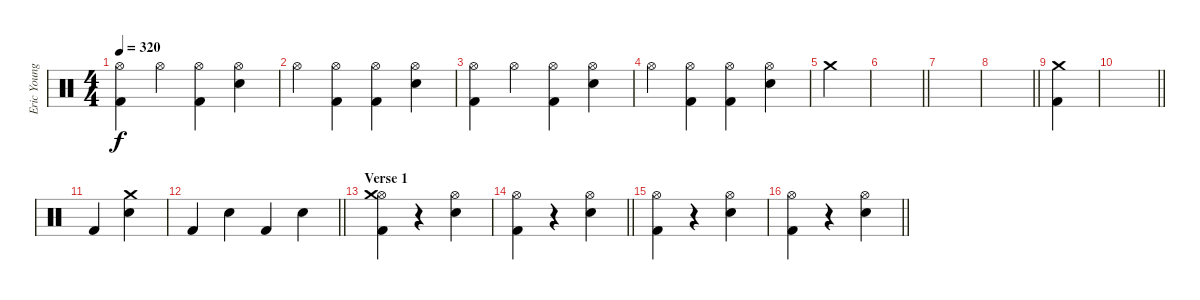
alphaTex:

\track ("Eric Young (Drums)" "Eric Young") {instrument percussion}
\staff {score}
\articulation defaults
\ts (4 4)
\tempo 320
\clef neutral
\ks c
("Hi-Hat (open)" "Kick (hit) 2").4{dy f} "Hi-Hat (open)".4 ("Hi-Hat (open)" "Kick (hit) 2").4 ("Hi-Hat (open)" "Snare (hit) 2").4 |
"Hi-Hat (open)".4 ("Hi-Hat (open)" "Kick (hit) 2").4 ("Hi-Hat (open)" "Kick (hit) 2").4 ("Hi-Hat (open)" "Snare (hit) 2").4 |
("Hi-Hat (open)" "Kick (hit) 2").4 "Hi-Hat (open)".4 ("Hi-Hat (open)" "Kick (hit) 2").4 ("Hi-Hat (open)" "Snare (hit) 2").4 |
"Hi-Hat (open)".4 ("Hi-Hat (open)" "Kick (hit) 2").4 ("Hi-Hat (open)" "Kick (hit) 2").4 ("Hi-Hat (open)" "Snare (hit) 2").4 |
"Crash medium (hit)".4 |
\barLineRight lightlight
|
|
\barLineRight lightlight
|
("Kick (hit) 2" "Crash medium (hit)").4 |
\barLineRight lightlight
|
"Kick (hit) 2".4 ("Snare (hit) 2" "Crash medium (hit)").4 |
\barLineRight lightlight "Kick (hit) 2".4 "Snare (hit) 2".4 "Kick (hit) 2".4 "Snare (hit) 2".4
|
\section ("" "Verse 1")
("Hi-Hat (open)" "Kick (hit) 2" "Crash medium (hit)").4 r.4 ("Hi-Hat (open)" "Snare (hit) 2").4 |
\barLineRight lightlight
("Hi-Hat (open)" "Kick (hit) 2").4 r.4 ("Hi-Hat (open)" "Snare (hit) 2").4 |
("Hi-Hat (open)" "Kick (hit) 2").4 r.4 ("Hi-Hat (open)" "Snare (hit) 2").4 |
\barLineRight lightlight
("Hi-Hat (open)" "Kick (hit) 2").4 r.4 ("Hi-Hat (open)" "Snare (hit) 2").4
